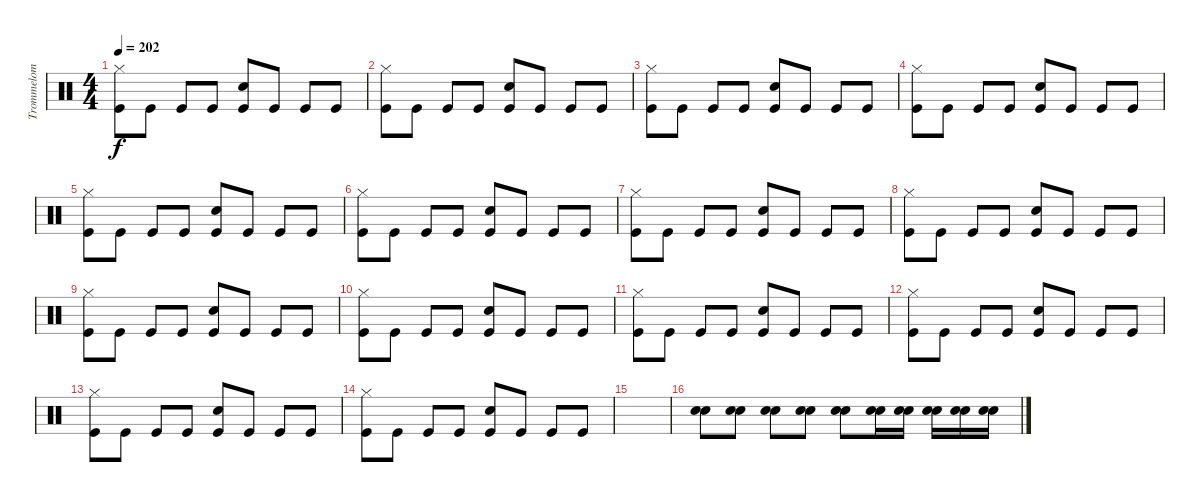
\track ("Trommelom" "Trommelom") {instrument percussion}
\staff {score}
\articulation defaults
\ts (4 4)
\tempo 202
\clef neutral
\ks c
("Hi-Hat (closed)" "Kick (hit)").8{dy f} "Kick (hit)".8 "Kick (hit)".8 "Kick (hit)".8 ("Electric Snare (hit)" "Kick (hit)").8 "Kick (hit)".8 "Kick (hit)".8 "Kick (hit)".8 |
("Hi-Hat (closed)" "Kick (hit)").8 "Kick (hit)".8 "Kick (hit)".8 "Kick (hit)".8 ("Electric Snare (hit)" "Kick (hit)").8 "Kick (hit)".8 "Kick (hit)".8 "Kick (hit)".8 |
("Hi-Hat (closed)" "Kick (hit)").8 "Kick (hit)".8 "Kick (hit)".8 "Kick (hit)".8 ("Electric Snare (hit)" "Kick (hit)").8 "Kick (hit)".8 "Kick (hit)".8 "Kick (hit)".8 |
("Hi-Hat (closed)" "Kick (hit)").8 "Kick (hit)".8 "Kick (hit)".8 "Kick (hit)".8 ("Electric Snare (hit)" "Kick (hit)").8 "Kick (hit)".8 "Kick (hit)".8 "Kick (hit)".8 |
("Hi-Hat (closed)" "Kick (hit)").8 "Kick (hit)".8 "Kick (hit)".8 "Kick (hit)".8 ("Electric Snare (hit)" "Kick (hit)").8 "Kick (hit)".8 "Kick (hit)".8 "Kick (hit)".8 |
("Hi-Hat (closed)" "Kick (hit)").8 "Kick (hit)".8 "Kick (hit)".8 "Kick (hit)".8 ("Electric Snare (hit)" "Kick (hit)").8 "Kick (hit)".8 "Kick (hit)".8 "Kick (hit)".8 |
("Hi-Hat (closed)" "Kick (hit)").8 "Kick (hit)".8 "Kick (hit)".8 "Kick (hit)".8 ("Electric Snare (hit)" "Kick (hit)").8 "Kick (hit)".8 "Kick (hit)".8 "Kick (hit)".8 |
("Hi-Hat (closed)" "Kick (hit)").8 "Kick (hit)".8 "Kick (hit)".8 "Kick (hit)".8 ("Electric Snare (hit)" "Kick (hit)").8 "Kick (hit)".8 "Kick (hit)".8 "Kick (hit)".8 |
("Hi-Hat (closed)" "Kick (hit)").8 "Kick (hit)".8 "Kick (hit)".8 "Kick (hit)".8 ("Electric Snare (hit)" "Kick (hit)").8 "Kick (hit)".8 "Kick (hit)".8 "Kick (hit)".8 |
("Hi-Hat (closed)" "Kick (hit)").8 "Kick (hit)".8 "Kick (hit)".8 "Kick (hit)".8 ("Electric Snare (hit)" "Kick (hit)").8 "Kick (hit)".8 "Kick (hit)".8 "Kick (hit)".8 |
("Hi-Hat (closed)" "Kick (hit)").8 "Kick (hit)".8 "Kick (hit)".8 "Kick (hit)".8 ("Electric Snare (hit)" "Kick (hit)").8 "Kick (hit)".8 "Kick (hit)".8 "Kick (hit)".8 |
("Hi-Hat (closed)" "Kick (hit)").8 "Kick (hit)".8 "Kick (hit)".8 "Kick (hit)".8 ("Electric Snare (hit)" "Kick (hit)").8 "Kick (hit)".8 "Kick (hit)".8 "Kick (hit)".8 |
("Hi-Hat (closed)" "Kick (hit)").8 "Kick (hit)".8 "Kick (hit)".8 "Kick (hit)".8 ("Electric Snare (hit)" "Kick (hit)").8 "Kick (hit)".8 "Kick (hit)".8 "Kick (hit)".8 |
("Hi-Hat (closed)" "Kick (hit)").8 "Kick (hit)".8 "Kick (hit)".8 "Kick (hit)".8 ("Electric Snare (hit)" "Kick (hit)").8 "Kick (hit)".8 "Kick (hit)".8 "Kick (hit)".8 |
|
("Electric Snare (hit)" "Electric Snare (hit)").8 ("Electric Snare (hit)" "Electric Snare (hit)").8 ("Electric Snare (hit)" "Electric Snare (hit)").8 ("Electric Snare (hit)" "Electric Snare (hit)").8 ("Electric Snare (hit)" "Electric Snare (hit)").8 ("Electric Snare (hit)" "Electric Snare (hit)").16 ("Electric Snare (hit)" "Electric Snare (hit)").16 ("Electric Snare (hit)" "Electric Snare (hit)").16 ("Electric Snare (hit)" "Electric Snare (hit)").16 ("Electric Snare (hit)" "Electric Snare (hit)").16
